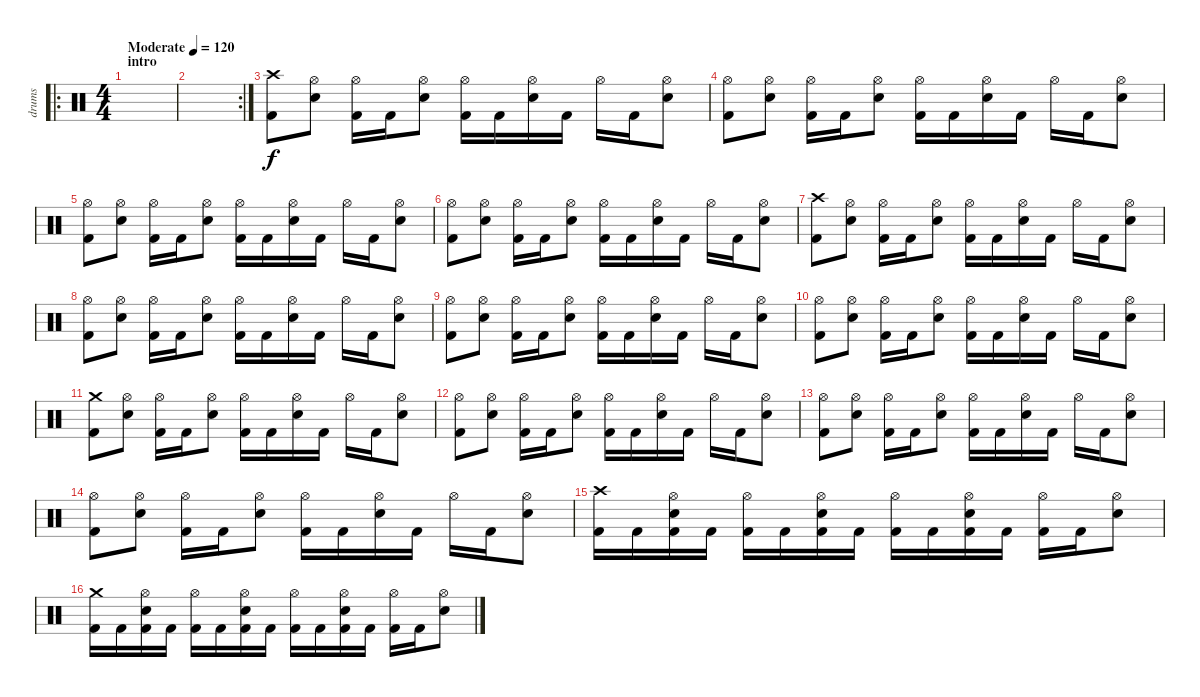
\track ("drums" "drums") {instrument percussion}
\staff {score}
\articulation defaults
\ro
\ts (4 4)
\section ("" "intro")
\tempo (120 "Moderate")
\clef neutral
\ks c
|
\rc 2
|
("Crash high (hit)" "Kick (hit) 2").8 ("Hi-Hat (open)" "Snare (hit) 2").8 ("Hi-Hat (open)" "Kick (hit) 2").16 "Kick (hit) 2".16 ("Hi-Hat (open)" "Snare (hit) 2").8 ("Hi-Hat (open)" "Kick (hit) 2").16 "Kick (hit) 2".16 ("Hi-Hat (open)" "Snare (hit) 2").16 "Kick (hit) 2".16 "Hi-Hat (open)".16 "Kick (hit) 2".16 ("Hi-Hat (open)" "Snare (hit) 2").8 |
("Hi-Hat (open)" "Kick (hit) 2").8 ("Hi-Hat (open)" "Snare (hit) 2").8 ("Hi-Hat (open)" "Kick (hit) 2").16 "Kick (hit) 2".16 ("Hi-Hat (open)" "Snare (hit) 2").8 ("Hi-Hat (open)" "Kick (hit) 2").16 "Kick (hit) 2".16 ("Hi-Hat (open)" "Snare (hit) 2").16 "Kick (hit) 2".16 "Hi-Hat (open)".16 "Kick (hit) 2".16 ("Hi-Hat (open)" "Snare (hit) 2").8 |
("Hi-Hat (open)" "Kick (hit) 2").8 ("Hi-Hat (open)" "Snare (hit) 2").8 ("Hi-Hat (open)" "Kick (hit) 2").16 "Kick (hit) 2".16 ("Hi-Hat (open)" "Snare (hit) 2").8 ("Hi-Hat (open)" "Kick (hit) 2").16 "Kick (hit) 2".16 ("Hi-Hat (open)" "Snare (hit) 2").16 "Kick (hit) 2".16 "Hi-Hat (open)".16 "Kick (hit) 2".16 ("Hi-Hat (open)" "Snare (hit) 2").8 |
("Hi-Hat (open)" "Kick (hit) 2").8 ("Hi-Hat (open)" "Snare (hit) 2").8 ("Hi-Hat (open)" "Kick (hit) 2").16 "Kick (hit) 2".16 ("Hi-Hat (open)" "Snare (hit) 2").8 ("Hi-Hat (open)" "Kick (hit) 2").16 "Kick (hit) 2".16 ("Hi-Hat (open)" "Snare (hit) 2").16 "Kick (hit) 2".16 "Hi-Hat (open)".16 "Kick (hit) 2".16 ("Hi-Hat (open)" "Snare (hit) 2").8 |
("Crash high (hit)" "Kick (hit) 2").8 ("Hi-Hat (open)" "Snare (hit) 2").8 ("Hi-Hat (open)" "Kick (hit) 2").16 "Kick (hit) 2".16 ("Hi-Hat (open)" "Snare (hit) 2").8 ("Hi-Hat (open)" "Kick (hit) 2").16 "Kick (hit) 2".16 ("Hi-Hat (open)" "Snare (hit) 2").16 "Kick (hit) 2".16 "Hi-Hat (open)".16 "Kick (hit) 2".16 ("Hi-Hat (open)" "Snare (hit) 2").8 |
("Hi-Hat (open)" "Kick (hit) 2").8 ("Hi-Hat (open)" "Snare (hit) 2").8 ("Hi-Hat (open)" "Kick (hit) 2").16 "Kick (hit) 2".16 ("Hi-Hat (open)" "Snare (hit) 2").8 ("Hi-Hat (open)" "Kick (hit) 2").16 "Kick (hit) 2".16 ("Hi-Hat (open)" "Snare (hit) 2").16 "Kick (hit) 2".16 "Hi-Hat (open)".16 "Kick (hit) 2".16 ("Hi-Hat (open)" "Snare (hit) 2").8 |
("Hi-Hat (open)" "Kick (hit) 2").8 ("Hi-Hat (open)" "Snare (hit) 2").8 ("Hi-Hat (open)" "Kick (hit) 2").16 "Kick (hit) 2".16 ("Hi-Hat (open)" "Snare (hit) 2").8 ("Hi-Hat (open)" "Kick (hit) 2").16 "Kick (hit) 2".16 ("Hi-Hat (open)" "Snare (hit) 2").16 "Kick (hit) 2".16 "Hi-Hat (open)".16 "Kick (hit) 2".16 ("Hi-Hat (open)" "Snare (hit) 2").8 |
("Hi-Hat (open)" "Kick (hit) 2").8 ("Hi-Hat (open)" "Snare (hit) 2").8 ("Hi-Hat (open)" "Kick (hit) 2").16 "Kick (hit) 2".16 ("Hi-Hat (open)" "Snare (hit) 2").8 ("Hi-Hat (open)" "Kick (hit) 2").16 "Kick (hit) 2".16 ("Hi-Hat (open)" "Snare (hit) 2").16 "Kick (hit) 2".16 "Hi-Hat (open)".16 "Kick (hit) 2".16 ("Hi-Hat (open)" "Snare (hit) 2").8 |
("Crash medium (hit)" "Kick (hit) 2").8 ("Hi-Hat (open)" "Snare (hit) 2").8 ("Hi-Hat (open)" "Kick (hit) 2").16 "Kick (hit) 2".16 ("Hi-Hat (open)" "Snare (hit) 2").8 ("Hi-Hat (open)" "Kick (hit) 2").16 "Kick (hit) 2".16 ("Hi-Hat (open)" "Snare (hit) 2").16 "Kick (hit) 2".16 "Hi-Hat (open)".16 "Kick (hit) 2".16 ("Hi-Hat (open)" "Snare (hit) 2").8 |
("Hi-Hat (open)" "Kick (hit) 2").8 ("Hi-Hat (open)" "Snare (hit) 2").8 ("Hi-Hat (open)" "Kick (hit) 2").16 "Kick (hit) 2".16 ("Hi-Hat (open)" "Snare (hit) 2").8 ("Hi-Hat (open)" "Kick (hit) 2").16 "Kick (hit) 2".16 ("Hi-Hat (open)" "Snare (hit) 2").16 "Kick (hit) 2".16 "Hi-Hat (open)".16 "Kick (hit) 2".16 ("Hi-Hat (open)" "Snare (hit) 2").8 |
("Hi-Hat (open)" "Kick (hit) 2").8 ("Hi-Hat (open)" "Snare (hit) 2").8 ("Hi-Hat (open)" "Kick (hit) 2").16 "Kick (hit) 2".16 ("Hi-Hat (open)" "Snare (hit) 2").8 ("Hi-Hat (open)" "Kick (hit) 2").16 "Kick (hit) 2".16 ("Hi-Hat (open)" "Snare (hit) 2").16 "Kick (hit) 2".16 "Hi-Hat (open)".16 "Kick (hit) 2".16 ("Hi-Hat (open)" "Snare (hit) 2").8 |
("Hi-Hat (open)" "Kick (hit) 2").8 ("Hi-Hat (open)" "Snare (hit) 2").8 ("Hi-Hat (open)" "Kick (hit) 2").16 "Kick (hit) 2".16 ("Hi-Hat (open)" "Snare (hit) 2").8 ("Hi-Hat (open)" "Kick (hit) 2").16 "Kick (hit) 2".16 ("Hi-Hat (open)" "Snare (hit) 2").16 "Kick (hit) 2".16 "Hi-Hat (open)".16 "Kick (hit) 2".16 ("Hi-Hat (open)" "Snare (hit) 2").8 |
("Crash high (hit)" "Kick (hit) 2").16 "Kick (hit) 2".16 ("Hi-Hat (open)" "Snare (hit) 2" "Kick (hit) 2").16 "Kick (hit) 2".16 ("Hi-Hat (open)" "Kick (hit) 2").16 "Kick (hit) 2".16 ("Hi-Hat (open)" "Snare (hit) 2" "Kick (hit) 2").16 "Kick (hit) 2".16 ("Hi-Hat (open)" "Kick (hit) 2").16 "Kick (hit) 2".16 ("Hi-Hat (open)" "Snare (hit) 2" "Kick (hit) 2").16 "Kick (hit) 2".16 ("Hi-Hat (open)" "Kick (hit) 2").16 "Kick (hit) 2".16 ("Hi-Hat (open)" "Snare (hit) 2").8 |
("Crash medium (hit)" "Kick (hit) 2").16 "Kick (hit) 2".16 ("Hi-Hat (open)" "Snare (hit) 2" "Kick (hit) 2").16 "Kick (hit) 2".16 ("Hi-Hat (open)" "Kick (hit) 2").16 "Kick (hit) 2".16 ("Hi-Hat (open)" "Snare (hit) 2" "Kick (hit) 2").16 "Kick (hit) 2".16 ("Hi-Hat (open)" "Kick (hit) 2").16 "Kick (hit) 2".16 ("Hi-Hat (open)" "Snare (hit) 2" "Kick (hit) 2").16 "Kick (hit) 2".16 ("Hi-Hat (open)" "Kick (hit) 2").16 "Kick (hit) 2".16 ("Hi-Hat (open)" "Snare (hit) 2").8
